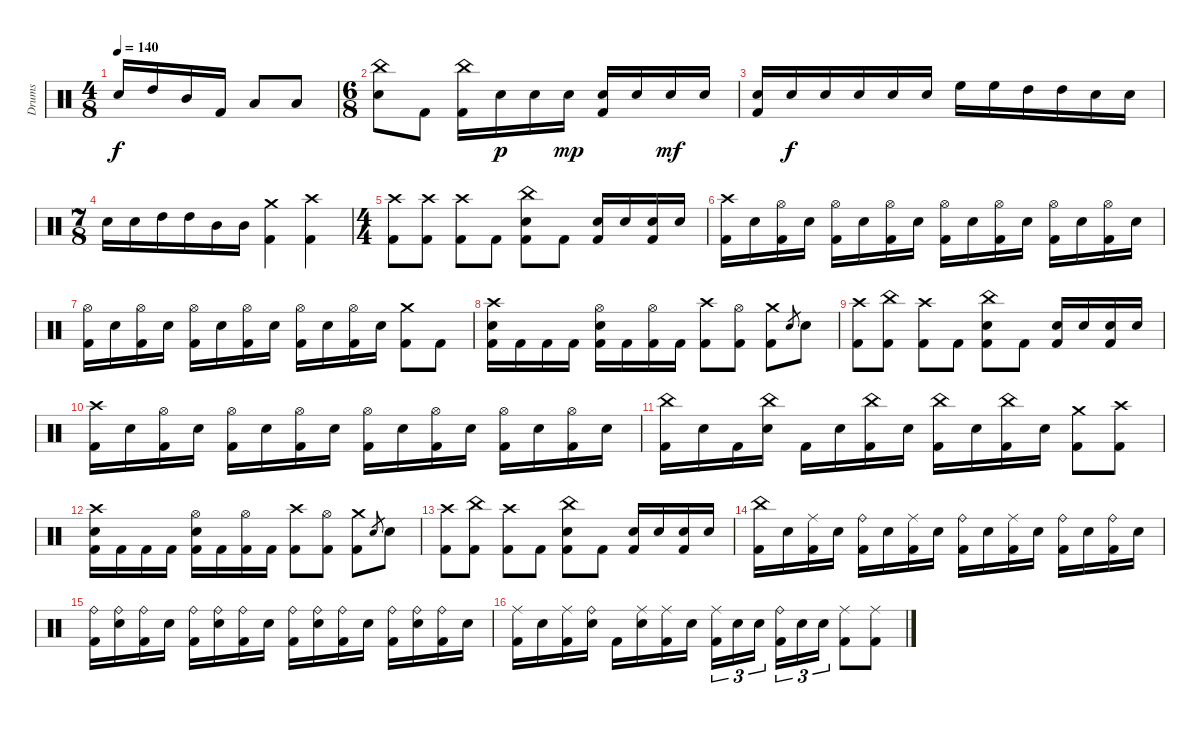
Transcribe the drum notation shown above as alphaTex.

\track ("Drums" "Drums") {instrument percussion}
\staff {score}
\articulation defaults
\ts (4 8)
\tempo 140
\clef neutral
\ks c "Electric Snare (hit)".16{dy f} "High Tom (hit)".16{beam merge} "Mid Tom (hit)".16 "Kick (hit) 2".16 "Low Tom (hit)".8 "Low Tom (hit)".8
|
\ts (6 8)
("China (hit)" "Electric Snare (hit)").8 "Kick (hit) 2".8{beam split} ("Kick (hit) 2" "China (hit)").16 "Electric Snare (hit)".16{dy p beam merge} "Electric Snare (hit)".16 "Electric Snare (hit)".16{dy mp beam split} ("Electric Snare (hit)" "Kick (hit) 2").16 "Electric Snare (hit)".16 "Electric Snare (hit)".16{dy mf} "Electric Snare (hit)".16 |
("Electric Snare (hit)" "Kick (hit) 2").16 "Electric Snare (hit)".16{dy f} "Electric Snare (hit)".16 "Electric Snare (hit)".16 "Electric Snare (hit)".16 "Electric Snare (hit)".16 "High Floor Tom (hit)".16 "High Floor Tom (hit)".16 "High Tom (hit)".16 "High Tom (hit)".16 "Electric Snare (hit)".16 "Electric Snare (hit)".16 |
\ts (7 8)
"Electric Snare (hit)".16 "Electric Snare (hit)".16{beam merge} "High Tom (hit)".16 "High Tom (hit)".16{beam merge} "Mid Tom (hit)".16 "Mid Tom (hit)".16 ("Crash medium (hit)" "Kick (hit) 2").4 ("Crash high (hit)" "Kick (hit) 2").4 |
\ts (4 4)
("Kick (hit) 2" "Crash high (hit)").8 ("Kick (hit) 2" "Crash high (hit)").8 ("Kick (hit) 2" "Crash high (hit)").8 "Kick (hit) 2".8 ("Kick (hit) 2" "China (hit)" "Electric Snare (hit)").8 "Kick (hit) 2".8 ("Kick (hit) 2" "Electric Snare (hit)").16 "Electric Snare (hit)".16 ("Kick (hit) 2" "Electric Snare (hit)").16 "Electric Snare (hit)".16 |
("Crash high (hit)" "Kick (hit) 2").16 "Electric Snare (hit)".16 ("Hi-Hat (open)" "Kick (hit) 2").16 "Electric Snare (hit)".16 ("Hi-Hat (open)" "Kick (hit) 2").16 "Electric Snare (hit)".16 ("Hi-Hat (open)" "Kick (hit) 2").16 "Electric Snare (hit)".16 ("Hi-Hat (open)" "Kick (hit) 2").16 "Electric Snare (hit)".16 ("Hi-Hat (open)" "Kick (hit) 2").16 "Electric Snare (hit)".16 ("Hi-Hat (open)" "Kick (hit) 2").16 "Electric Snare (hit)".16 ("Hi-Hat (open)" "Kick (hit) 2").16 "Electric Snare (hit)".16 |
("Hi-Hat (open)" "Kick (hit) 2").16 "Electric Snare (hit)".16 ("Hi-Hat (open)" "Kick (hit) 2").16 "Electric Snare (hit)".16 ("Hi-Hat (open)" "Kick (hit) 2").16 "Electric Snare (hit)".16 ("Hi-Hat (open)" "Kick (hit) 2").16 "Electric Snare (hit)".16 ("Hi-Hat (open)" "Kick (hit) 2").16 "Electric Snare (hit)".16 ("Hi-Hat (open)" "Kick (hit) 2").16 "Electric Snare (hit)".16 ("Crash medium (hit)" "Kick (hit) 2").8 "Kick (hit) 2".8 |
("Kick (hit) 2" "Crash high (hit)" "Electric Snare (hit)").16 "Kick (hit) 2".16 "Kick (hit) 2".16 "Kick (hit) 2".16 ("Kick (hit) 2" "Hi-Hat (open)" "Electric Snare (hit)").16 "Kick (hit) 2".16 ("Kick (hit) 2" "Hi-Hat (open)").16 "Kick (hit) 2".16 ("Kick (hit) 2" "Crash high (hit)").8 ("Kick (hit) 2" "Hi-Hat (open)").8 ("Kick (hit) 2" "Crash medium (hit)").8 "Electric Snare (hit)".8{gr} "Electric Snare (hit)".8 |
("Kick (hit) 2" "Crash high (hit)").8 ("Kick (hit) 2" "China (hit)").8 ("Kick (hit) 2" "Crash high (hit)").8 "Kick (hit) 2".8 ("Kick (hit) 2" "China (hit)" "Electric Snare (hit)").8 "Kick (hit) 2".8 ("Kick (hit) 2" "Electric Snare (hit)").16 "Electric Snare (hit)".16 ("Kick (hit) 2" "Electric Snare (hit)").16 "Electric Snare (hit)".16 |
("Crash high (hit)" "Kick (hit) 2").16 "Electric Snare (hit)".16 ("Hi-Hat (open)" "Kick (hit) 2").16 "Electric Snare (hit)".16 ("Hi-Hat (open)" "Kick (hit) 2").16 "Electric Snare (hit)".16 ("Hi-Hat (open)" "Kick (hit) 2").16 "Electric Snare (hit)".16 ("Hi-Hat (open)" "Kick (hit) 2").16 "Electric Snare (hit)".16 ("Hi-Hat (open)" "Kick (hit) 2").16 "Electric Snare (hit)".16 ("Hi-Hat (open)" "Kick (hit) 2").16 "Electric Snare (hit)".16 ("Hi-Hat (open)" "Kick (hit) 2").16 "Electric Snare (hit)".16 |
("China (hit)" "Kick (hit) 2").16 "Electric Snare (hit)".16 "Kick (hit) 2".16 ("Electric Snare (hit)" "China (hit)").16 "Kick (hit) 2".16 "Electric Snare (hit)".16 ("China (hit)" "Kick (hit) 2").16 "Electric Snare (hit)".16 ("China (hit)" "Kick (hit) 2").16 "Electric Snare (hit)".16 ("China (hit)" "Kick (hit) 2").16 "Electric Snare (hit)".16 ("Crash medium (hit)" "Kick (hit) 2").8 ("Crash high (hit)" "Kick (hit) 2").8 |
("Kick (hit) 2" "Crash high (hit)" "Electric Snare (hit)").16 "Kick (hit) 2".16 "Kick (hit) 2".16 "Kick (hit) 2".16 ("Kick (hit) 2" "Hi-Hat (open)" "Electric Snare (hit)").16 "Kick (hit) 2".16 ("Kick (hit) 2" "Hi-Hat (open)").16 "Kick (hit) 2".16 ("Kick (hit) 2" "Crash high (hit)").8 ("Kick (hit) 2" "Hi-Hat (open)").8 ("Kick (hit) 2" "Crash medium (hit)").8 "Electric Snare (hit)".8{gr} "Electric Snare (hit)".8 |
("Kick (hit) 2" "Crash high (hit)").8 ("Kick (hit) 2" "China (hit)").8 ("Kick (hit) 2" "Crash high (hit)").8 "Kick (hit) 2".8 ("Kick (hit) 2" "China (hit)" "Electric Snare (hit)").8 "Kick (hit) 2".8 ("Kick (hit) 2" "Electric Snare (hit)").16 "Electric Snare (hit)".16 ("Kick (hit) 2" "Electric Snare (hit)").16 "Electric Snare (hit)".16 |
("China (hit)" "Kick (hit) 2").16 "Electric Snare (hit)".16 ("Ride (middle)" "Kick (hit) 2").16 "Electric Snare (hit)".16 ("Ride (bell)" "Kick (hit) 2").16 "Electric Snare (hit)".16 ("Ride (middle)" "Kick (hit) 2").16 "Electric Snare (hit)".16 ("Ride (bell)" "Kick (hit) 2").16 "Electric Snare (hit)".16 ("Ride (middle)" "Kick (hit) 2").16 "Electric Snare (hit)".16 ("Ride (bell)" "Kick (hit) 2").16 "Electric Snare (hit)".16 ("Ride (bell)" "Kick (hit) 2").16 "Electric Snare (hit)".16 |
("Ride (bell)" "Kick (hit) 2").16 ("Electric Snare (hit)" "Ride (bell)").16 ("Ride (bell)" "Kick (hit) 2").16 "Electric Snare (hit)".16 ("Ride (bell)" "Kick (hit) 2").16 ("Electric Snare (hit)" "Ride (bell)").16 ("Ride (bell)" "Kick (hit) 2").16 "Electric Snare (hit)".16 ("Ride (bell)" "Kick (hit) 2").16 ("Electric Snare (hit)" "Ride (bell)").16 ("Ride (bell)" "Kick (hit) 2").16 "Electric Snare (hit)".16 ("Ride (bell)" "Kick (hit) 2").16 ("Electric Snare (hit)" "Ride (bell)").16 ("Ride (bell)" "Kick (hit) 2").16 "Electric Snare (hit)".16 |
("Ride (middle)" "Kick (hit) 2").16 "Electric Snare (hit)".16 ("Ride (middle)" "Kick (hit) 2").16 ("Electric Snare (hit)" "Ride (bell)").16 "Kick (hit) 2".16 ("Electric Snare (hit)" "Ride (middle)").16 ("Ride (middle)" "Kick (hit) 2").16 "Electric Snare (hit)".16 ("Ride (middle)" "Kick (hit) 2").16{tu (3 2)} "Electric Snare (hit)".16{tu (3 2)} "Electric Snare (hit)".16{tu (3 2) beam splitsecondary} ("Ride (bell)" "Kick (hit) 2").16{tu (3 2)} "Electric Snare (hit)".16{tu (3 2)} "Electric Snare (hit)".16{tu (3 2)} ("Kick (hit) 2" "Ride (middle)").8 ("Ride (middle)" "Kick (hit) 2").8
